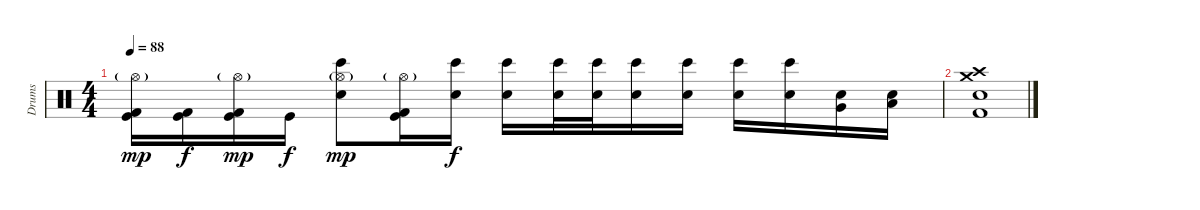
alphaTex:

\track ("Drums" "Drums") {instrument percussion}
\staff {score}
\articulation defaults
\ts (4 4)
\tempo 88
\clef neutral
\ks c
("Hi-Hat (open)"{g} "Kick (hit) 2" "Kick (hit)").16{dy mp} ("Kick (hit) 2" "Kick (hit)").16{dy f} ("Hi-Hat (open)"{g} "Kick (hit) 2" "Kick (hit)").16{dy mp} "Kick (hit)".16{dy f} ("Hi-Hat (open)"{g} "Bongo High (hit)" "Snare (hit) 2").8{dy mp} ("Hi-Hat (open)"{g} "Kick (hit) 2" "Kick (hit)").16 ("Bongo High (hit)" "Snare (hit) 2").16{dy f} ("Bongo High (hit)" "Snare (hit) 2").16 ("Bongo High (hit)" "Snare (hit) 2").32 ("Bongo High (hit)" "Snare (hit) 2").32 ("Bongo High (hit)" "Snare (hit) 2").16 ("Bongo High (hit)" "Snare (hit) 2").16 ("Bongo High (hit)" "Snare (hit) 2").16 ("Bongo High (hit)" "Snare (hit) 2").16 ("Snare (hit) 2" "Very Low Tom (hit)").16 ("Snare (hit) 2" "Low Floor Tom (hit)").16 |
("Crash medium (hit)" "Crash high (hit)" "Snare (hit) 2" "Kick (hit) 2").1
